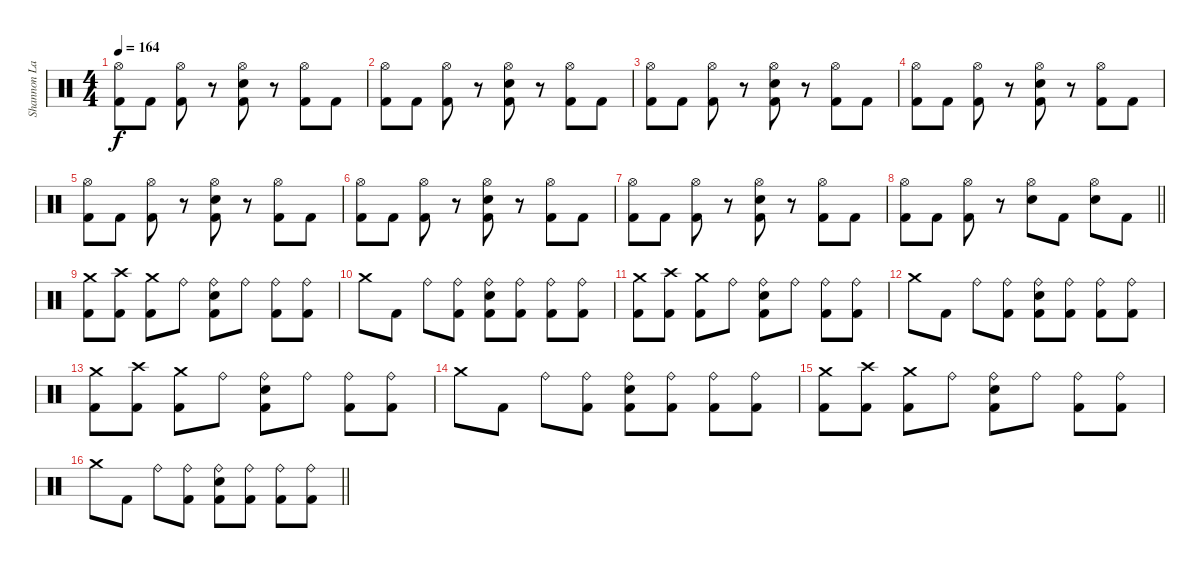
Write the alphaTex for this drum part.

\track ("Shannon Larkin" "Shannon La") {instrument percussion}
\staff {score}
\articulation defaults
\ts (4 4)
\tempo 164
\clef neutral
\ks c
("Hi-Hat (open)" "Kick (hit) 2").8{dy f} "Kick (hit) 2".8 ("Hi-Hat (open)" "Kick (hit) 2").8 r.8 ("Hi-Hat (open)" "Electric Snare (hit)" "Kick (hit) 2").8 r.8 ("Hi-Hat (open)" "Kick (hit) 2").8 "Kick (hit) 2".8 |
("Hi-Hat (open)" "Kick (hit) 2").8 "Kick (hit) 2".8 ("Hi-Hat (open)" "Kick (hit) 2").8 r.8 ("Hi-Hat (open)" "Electric Snare (hit)" "Kick (hit) 2").8 r.8 ("Hi-Hat (open)" "Kick (hit) 2").8 "Kick (hit) 2".8 |
("Hi-Hat (open)" "Kick (hit) 2").8 "Kick (hit) 2".8 ("Hi-Hat (open)" "Kick (hit) 2").8 r.8 ("Hi-Hat (open)" "Electric Snare (hit)" "Kick (hit) 2").8 r.8 ("Hi-Hat (open)" "Kick (hit) 2").8 "Kick (hit) 2".8 |
("Hi-Hat (open)" "Kick (hit) 2").8 "Kick (hit) 2".8 ("Hi-Hat (open)" "Kick (hit) 2").8 r.8 ("Hi-Hat (open)" "Electric Snare (hit)" "Kick (hit) 2").8 r.8 ("Hi-Hat (open)" "Kick (hit) 2").8 "Kick (hit) 2".8 |
("Hi-Hat (open)" "Kick (hit) 2").8 "Kick (hit) 2".8 ("Hi-Hat (open)" "Kick (hit) 2").8 r.8 ("Hi-Hat (open)" "Electric Snare (hit)" "Kick (hit) 2").8 r.8 ("Hi-Hat (open)" "Kick (hit) 2").8 "Kick (hit) 2".8 |
("Hi-Hat (open)" "Kick (hit) 2").8 "Kick (hit) 2".8 ("Hi-Hat (open)" "Kick (hit) 2").8 r.8 ("Hi-Hat (open)" "Electric Snare (hit)" "Kick (hit) 2").8 r.8 ("Hi-Hat (open)" "Kick (hit) 2").8 "Kick (hit) 2".8 |
("Hi-Hat (open)" "Kick (hit) 2").8 "Kick (hit) 2".8 ("Hi-Hat (open)" "Kick (hit) 2").8 r.8 ("Hi-Hat (open)" "Electric Snare (hit)" "Kick (hit) 2").8 r.8 ("Hi-Hat (open)" "Kick (hit) 2").8 "Kick (hit) 2".8 |
\barLineRight lightlight
("Hi-Hat (open)" "Kick (hit) 2").8 "Kick (hit) 2".8 ("Hi-Hat (open)" "Kick (hit) 2").8 r.8 ("Hi-Hat (open)" "Electric Snare (hit)").8 "Kick (hit) 2".8 ("Hi-Hat (open)" "Electric Snare (hit)").8 "Kick (hit) 2".8 |
\section ("" "")
("Crash medium (hit)" "Kick (hit) 2").8 ("Crash high (hit)" "Kick (hit) 2").8 ("Crash medium (hit)" "Kick (hit) 2").8 "Ride (bell)".8 ("Ride (bell)" "Electric Snare (hit)" "Kick (hit) 2").8 "Ride (bell)".8 ("Ride (bell)" "Kick (hit) 2").8 ("Ride (bell)" "Kick (hit) 2").8 |
"Crash medium (hit)".8 "Kick (hit) 2".8 "Ride (bell)".8 ("Ride (bell)" "Kick (hit) 2").8 ("Ride (bell)" "Electric Snare (hit)" "Kick (hit) 2").8 ("Ride (bell)" "Kick (hit) 2").8 ("Ride (bell)" "Kick (hit) 2").8 ("Ride (bell)" "Kick (hit) 2").8 |
("Crash medium (hit)" "Kick (hit) 2").8 ("Crash high (hit)" "Kick (hit) 2").8 ("Crash medium (hit)" "Kick (hit) 2").8 "Ride (bell)".8 ("Ride (bell)" "Electric Snare (hit)" "Kick (hit) 2").8 "Ride (bell)".8 ("Ride (bell)" "Kick (hit) 2").8 ("Ride (bell)" "Kick (hit) 2").8 |
"Crash medium (hit)".8 "Kick (hit) 2".8 "Ride (bell)".8 ("Ride (bell)" "Kick (hit) 2").8 ("Ride (bell)" "Electric Snare (hit)" "Kick (hit) 2").8 ("Ride (bell)" "Kick (hit) 2").8 ("Ride (bell)" "Kick (hit) 2").8 ("Ride (bell)" "Kick (hit) 2").8 |
("Crash medium (hit)" "Kick (hit) 2").8 ("Crash high (hit)" "Kick (hit) 2").8 ("Crash medium (hit)" "Kick (hit) 2").8 "Ride (bell)".8 ("Ride (bell)" "Electric Snare (hit)" "Kick (hit) 2").8 "Ride (bell)".8 ("Ride (bell)" "Kick (hit) 2").8 ("Ride (bell)" "Kick (hit) 2").8 |
"Crash medium (hit)".8 "Kick (hit) 2".8 "Ride (bell)".8 ("Ride (bell)" "Kick (hit) 2").8 ("Ride (bell)" "Electric Snare (hit)" "Kick (hit) 2").8 ("Ride (bell)" "Kick (hit) 2").8 ("Ride (bell)" "Kick (hit) 2").8 ("Ride (bell)" "Kick (hit) 2").8 |
("Crash medium (hit)" "Kick (hit) 2").8 ("Crash high (hit)" "Kick (hit) 2").8 ("Crash medium (hit)" "Kick (hit) 2").8 "Ride (bell)".8 ("Ride (bell)" "Electric Snare (hit)" "Kick (hit) 2").8 "Ride (bell)".8 ("Ride (bell)" "Kick (hit) 2").8 ("Ride (bell)" "Kick (hit) 2").8 |
\barLineRight lightlight "Crash medium (hit)".8 "Kick (hit) 2".8 "Ride (bell)".8
("Ride (bell)" "Kick (hit) 2").8 ("Ride (bell)" "Electric Snare (hit)" "Kick (hit) 2").8 ("Ride (bell)" "Kick (hit) 2").8 ("Ride (bell)" "Kick (hit) 2").8 ("Ride (bell)" "Kick (hit) 2").8
